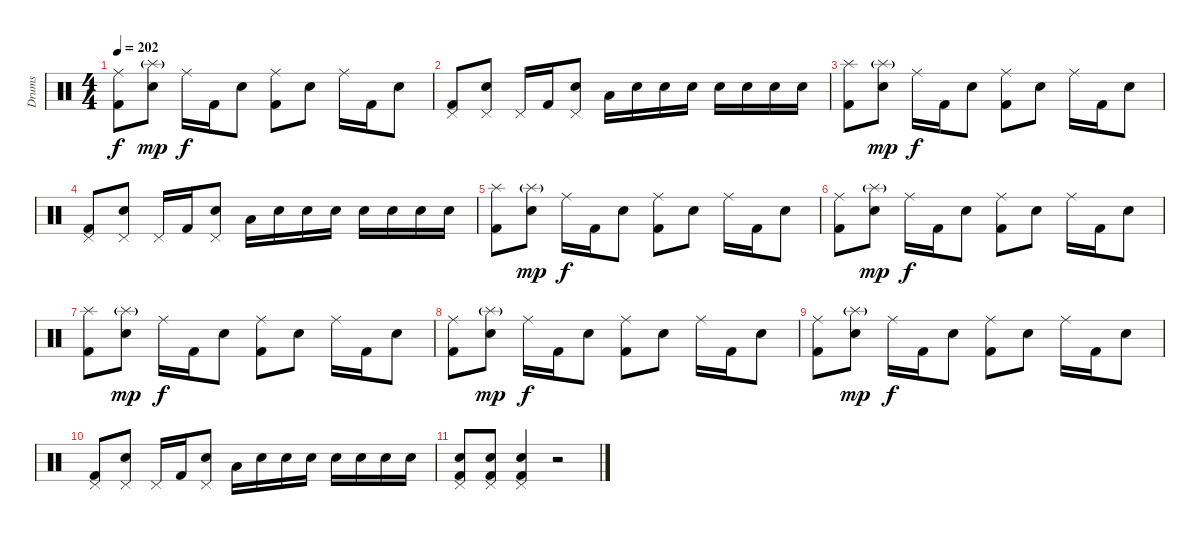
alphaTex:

\track ("Drums" "Drums") {instrument percussion}
\staff {score}
\articulation defaults
\ts (4 4)
\tempo 202
\clef neutral
\ks c
("Ride (middle)" "Kick (hit) 2").8{dy f} ("Splash (hit)"{g} "Electric Snare (hit)").8{dy mp} "Ride (middle)".16{dy f} "Kick (hit) 2".16 "Electric Snare (hit)".8 ("Ride (middle)" "Kick (hit) 2").8 "Electric Snare (hit)".8 "Ride (middle)".16 "Kick (hit) 2".16 "Electric Snare (hit)".8 |
("Pedal Hi-Hat (hit)" "Kick (hit) 2").8 ("Pedal Hi-Hat (hit)" "Electric Snare (hit)").8 "Pedal Hi-Hat (hit)".16 "Kick (hit) 2".16 ("Pedal Hi-Hat (hit)" "Electric Snare (hit)").8 "Low Tom (hit)".16 "Electric Snare (hit)".16 "Electric Snare (hit)".16 "Electric Snare (hit)".16 "Electric Snare (hit)".16 "Electric Snare (hit)".16 "Electric Snare (hit)".16 "Electric Snare (hit)".16 |
("Splash (hit)" "Kick (hit) 2").8 ("Splash (hit)"{g} "Electric Snare (hit)").8{dy mp} "Ride (middle)".16{dy f} "Kick (hit) 2".16 "Electric Snare (hit)".8 ("Ride (middle)" "Kick (hit) 2").8 "Electric Snare (hit)".8 "Ride (middle)".16 "Kick (hit) 2".16 "Electric Snare (hit)".8 |
("Pedal Hi-Hat (hit)" "Kick (hit) 2").8 ("Pedal Hi-Hat (hit)" "Electric Snare (hit)").8 "Pedal Hi-Hat (hit)".16 "Kick (hit) 2".16 ("Pedal Hi-Hat (hit)" "Electric Snare (hit)").8 "Low Tom (hit)".16 "Electric Snare (hit)".16 "Electric Snare (hit)".16 "Electric Snare (hit)".16 "Electric Snare (hit)".16 "Electric Snare (hit)".16 "Electric Snare (hit)".16 "Electric Snare (hit)".16 |
("Splash (hit)" "Kick (hit) 2").8 ("Splash (hit)"{g} "Electric Snare (hit)").8{dy mp} "Ride (middle)".16{dy f} "Kick (hit) 2".16 "Electric Snare (hit)".8 ("Ride (middle)" "Kick (hit) 2").8 "Electric Snare (hit)".8 "Ride (middle)".16 "Kick (hit) 2".16 "Electric Snare (hit)".8 |
("Ride (middle)" "Kick (hit) 2").8 ("Splash (hit)"{g} "Electric Snare (hit)").8{dy mp} "Ride (middle)".16{dy f} "Kick (hit) 2".16 "Electric Snare (hit)".8 ("Ride (middle)" "Kick (hit) 2").8 "Electric Snare (hit)".8 "Ride (middle)".16 "Kick (hit) 2".16 "Electric Snare (hit)".8 |
("Splash (hit)" "Kick (hit) 2").8 ("Splash (hit)"{g} "Electric Snare (hit)").8{dy mp} "Ride (middle)".16{dy f} "Kick (hit) 2".16 "Electric Snare (hit)".8 ("Ride (middle)" "Kick (hit) 2").8 "Electric Snare (hit)".8 "Ride (middle)".16 "Kick (hit) 2".16 "Electric Snare (hit)".8 |
("Ride (middle)" "Kick (hit) 2").8 ("Splash (hit)"{g} "Electric Snare (hit)").8{dy mp} "Ride (middle)".16{dy f} "Kick (hit) 2".16 "Electric Snare (hit)".8 ("Ride (middle)" "Kick (hit) 2").8 "Electric Snare (hit)".8 "Ride (middle)".16 "Kick (hit) 2".16 "Electric Snare (hit)".8 |
("Ride (middle)" "Kick (hit) 2").8 ("Splash (hit)"{g} "Electric Snare (hit)").8{dy mp} "Ride (middle)".16{dy f} "Kick (hit) 2".16 "Electric Snare (hit)".8 ("Ride (middle)" "Kick (hit) 2").8 "Electric Snare (hit)".8 "Ride (middle)".16 "Kick (hit) 2".16 "Electric Snare (hit)".8 |
("Pedal Hi-Hat (hit)" "Kick (hit) 2").8 ("Pedal Hi-Hat (hit)" "Electric Snare (hit)").8 "Pedal Hi-Hat (hit)".16 "Kick (hit) 2".16 ("Pedal Hi-Hat (hit)" "Electric Snare (hit)").8 "Low Tom (hit)".16 "Electric Snare (hit)".16 "Electric Snare (hit)".16 "Electric Snare (hit)".16 "Electric Snare (hit)".16 "Electric Snare (hit)".16 "Electric Snare (hit)".16 "Electric Snare (hit)".16 |
("Pedal Hi-Hat (hit)" "Electric Snare (hit)" "Kick (hit) 2").8 ("Pedal Hi-Hat (hit)" "Electric Snare (hit)" "Kick (hit) 2").8 ("Pedal Hi-Hat (hit)" "Electric Snare (hit)" "Kick (hit) 2").4 r.2
